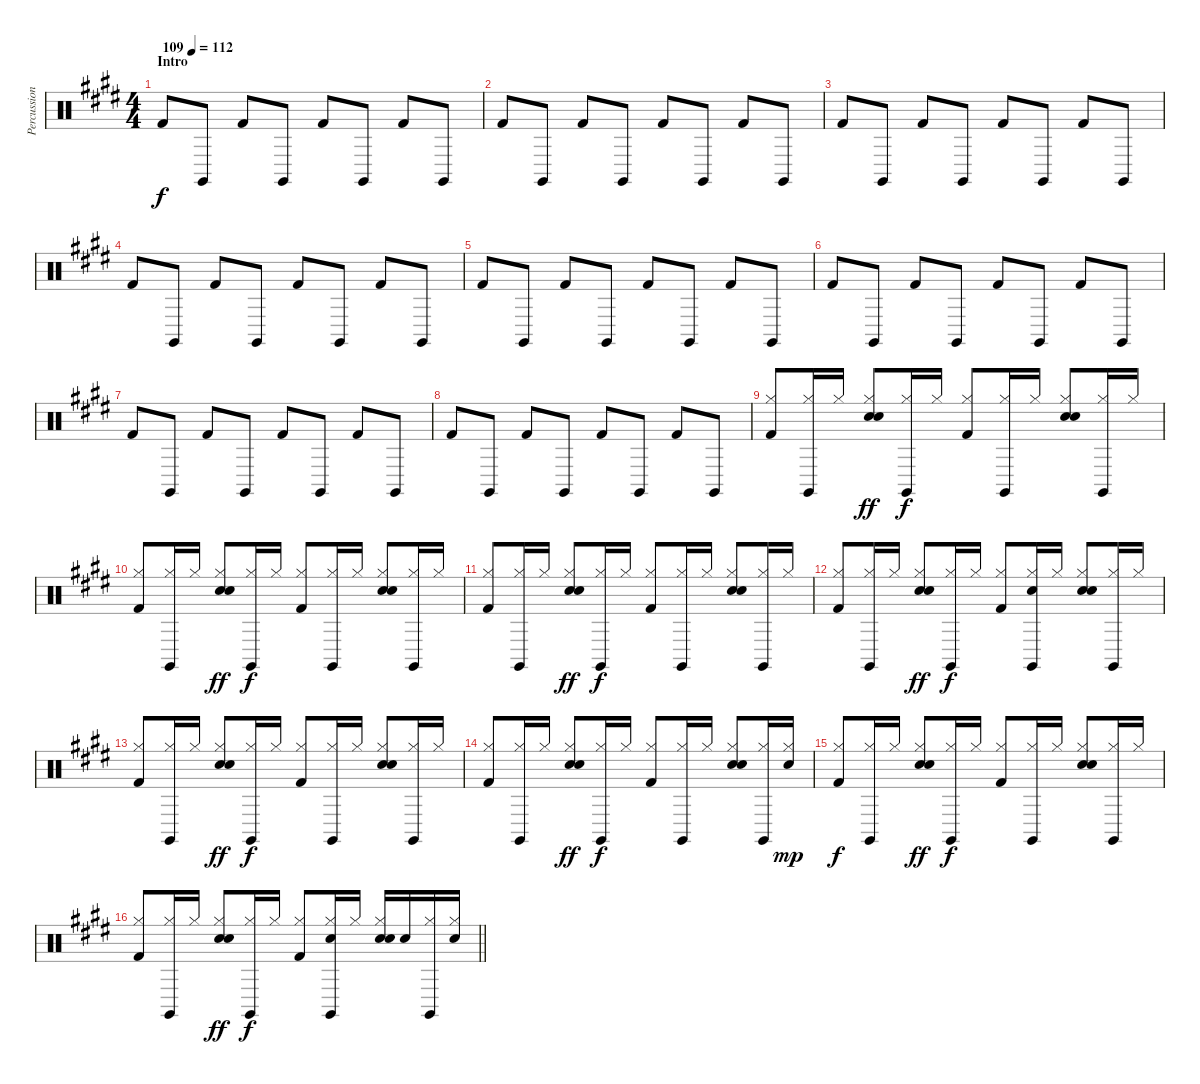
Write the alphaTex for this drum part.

\track ("Percussion" "Percussion") {instrument percussion}
\staff {score}
\articulation defaults
\ts (4 4)
\section ("" "Intro")
\tempo (112 "109")
\clef neutral
\ks e "Kick (hit) 2".8{dy f} "Claves (hit)".8 "Kick (hit) 2".8 "Claves (hit)".8 "Kick (hit) 2".8 "Claves (hit)".8 "Kick (hit) 2".8 "Claves (hit)".8
|
"Kick (hit) 2".8 "Claves (hit)".8 "Kick (hit) 2".8 "Claves (hit)".8 "Kick (hit) 2".8 "Claves (hit)".8 "Kick (hit) 2".8 "Claves (hit)".8 |
"Kick (hit) 2".8 "Claves (hit)".8 "Kick (hit) 2".8 "Claves (hit)".8 "Kick (hit) 2".8 "Claves (hit)".8 "Kick (hit) 2".8 "Claves (hit)".8 |
"Kick (hit) 2".8 "Claves (hit)".8 "Kick (hit) 2".8 "Claves (hit)".8 "Kick (hit) 2".8 "Claves (hit)".8 "Kick (hit) 2".8 "Claves (hit)".8 |
"Kick (hit) 2".8 "Claves (hit)".8 "Kick (hit) 2".8 "Claves (hit)".8 "Kick (hit) 2".8 "Claves (hit)".8 "Kick (hit) 2".8 "Claves (hit)".8 |
"Kick (hit) 2".8 "Claves (hit)".8 "Kick (hit) 2".8 "Claves (hit)".8 "Kick (hit) 2".8 "Claves (hit)".8 "Kick (hit) 2".8 "Claves (hit)".8 |
"Kick (hit) 2".8 "Claves (hit)".8 "Kick (hit) 2".8 "Claves (hit)".8 "Kick (hit) 2".8 "Claves (hit)".8 "Kick (hit) 2".8 "Claves (hit)".8 |
"Kick (hit) 2".8 "Claves (hit)".8 "Kick (hit) 2".8 "Claves (hit)".8 "Kick (hit) 2".8 "Claves (hit)".8 "Kick (hit) 2".8 "Claves (hit)".8 |
("Hi-Hat (closed)" "Kick (hit) 2").8 ("Claves (hit)" "Hi-Hat (closed)").16 "Hi-Hat (closed)".16 ("Hand Clap (hit)" "Hi-Hat (closed)" "Snare (hit) 2").8{dy ff} ("Claves (hit)" "Hi-Hat (closed)").16{dy f} "Hi-Hat (closed)".16 ("Hi-Hat (closed)" "Kick (hit) 2").8 ("Claves (hit)" "Hi-Hat (closed)").16 "Hi-Hat (closed)".16 ("Hand Clap (hit)" "Hi-Hat (closed)" "Snare (hit) 2").8 ("Claves (hit)" "Hi-Hat (closed)").16 "Hi-Hat (closed)".16 |
("Hi-Hat (closed)" "Kick (hit) 2").8 ("Claves (hit)" "Hi-Hat (closed)").16 "Hi-Hat (closed)".16 ("Hand Clap (hit)" "Hi-Hat (closed)" "Snare (hit) 2").8{dy ff} ("Claves (hit)" "Hi-Hat (closed)").16{dy f} "Hi-Hat (closed)".16 ("Hi-Hat (closed)" "Kick (hit) 2").8 ("Claves (hit)" "Hi-Hat (closed)").16 "Hi-Hat (closed)".16 ("Hand Clap (hit)" "Hi-Hat (closed)" "Snare (hit) 2").8 ("Claves (hit)" "Hi-Hat (closed)").16 "Hi-Hat (closed)".16 |
("Hi-Hat (closed)" "Kick (hit) 2").8 ("Claves (hit)" "Hi-Hat (closed)").16 "Hi-Hat (closed)".16 ("Hand Clap (hit)" "Hi-Hat (closed)" "Snare (hit) 2").8{dy ff} ("Claves (hit)" "Hi-Hat (closed)").16{dy f} "Hi-Hat (closed)".16 ("Hi-Hat (closed)" "Kick (hit) 2").8 ("Claves (hit)" "Hi-Hat (closed)").16 "Hi-Hat (closed)".16 ("Hand Clap (hit)" "Hi-Hat (closed)" "Snare (hit) 2").8 ("Claves (hit)" "Hi-Hat (closed)").16 "Hi-Hat (closed)".16 |
("Hi-Hat (closed)" "Kick (hit) 2").8 ("Claves (hit)" "Hi-Hat (closed)").16 "Hi-Hat (closed)".16 ("Hand Clap (hit)" "Hi-Hat (closed)" "Snare (hit) 2").8{dy ff} ("Claves (hit)" "Hi-Hat (closed)").16{dy f} "Hi-Hat (closed)".16 ("Hi-Hat (closed)" "Kick (hit) 2").8 ("Claves (hit)" "Hand Clap (hit)" "Hi-Hat (closed)").16 "Hi-Hat (closed)".16 ("Hand Clap (hit)" "Hi-Hat (closed)" "Snare (hit) 2").8 ("Claves (hit)" "Hi-Hat (closed)").16 "Hi-Hat (closed)".16 |
("Hi-Hat (closed)" "Kick (hit) 2").8 ("Claves (hit)" "Hi-Hat (closed)").16 "Hi-Hat (closed)".16 ("Hand Clap (hit)" "Hi-Hat (closed)" "Snare (hit) 2").8{dy ff} ("Claves (hit)" "Hi-Hat (closed)").16{dy f} "Hi-Hat (closed)".16 ("Hi-Hat (closed)" "Kick (hit) 2").8 ("Claves (hit)" "Hi-Hat (closed)").16 "Hi-Hat (closed)".16 ("Hand Clap (hit)" "Hi-Hat (closed)" "Snare (hit) 2").8 ("Claves (hit)" "Hi-Hat (closed)").16 "Hi-Hat (closed)".16 |
("Hi-Hat (closed)" "Kick (hit) 2").8 ("Claves (hit)" "Hi-Hat (closed)").16 "Hi-Hat (closed)".16 ("Hand Clap (hit)" "Hi-Hat (closed)" "Snare (hit) 2").8{dy ff} ("Claves (hit)" "Hi-Hat (closed)").16{dy f} "Hi-Hat (closed)".16 ("Hi-Hat (closed)" "Kick (hit) 2").8 ("Claves (hit)" "Hi-Hat (closed)").16 "Hi-Hat (closed)".16 ("Hand Clap (hit)" "Hi-Hat (closed)" "Snare (hit) 2").8 ("Claves (hit)" "Hi-Hat (closed)").16 ("Electric Snare (hit)" "Hi-Hat (closed)").16{dy mp} |
("Hi-Hat (closed)" "Kick (hit) 2").8{dy f} ("Claves (hit)" "Hi-Hat (closed)").16 "Hi-Hat (closed)".16 ("Hand Clap (hit)" "Hi-Hat (closed)" "Snare (hit) 2").8{dy ff} ("Claves (hit)" "Hi-Hat (closed)").16{dy f} "Hi-Hat (closed)".16 ("Hi-Hat (closed)" "Kick (hit) 2").8 ("Claves (hit)" "Hi-Hat (closed)").16 "Hi-Hat (closed)".16 ("Hand Clap (hit)" "Hi-Hat (closed)" "Snare (hit) 2").8 ("Claves (hit)" "Hi-Hat (closed)").16 "Hi-Hat (closed)".16 |
\barLineRight lightlight
("Hi-Hat (closed)" "Kick (hit) 2").8 ("Claves (hit)" "Hi-Hat (closed)").16 "Hi-Hat (closed)".16 ("Hand Clap (hit)" "Hi-Hat (closed)" "Snare (hit) 2").8{dy ff} ("Claves (hit)" "Hi-Hat (closed)").16{dy f} "Hi-Hat (closed)".16 ("Hi-Hat (closed)" "Kick (hit) 2").8 ("Claves (hit)" "Hi-Hat (closed)" "Snare (hit) 2").16 "Hi-Hat (closed)".16 ("Hand Clap (hit)" "Hi-Hat (closed)" "Snare (hit) 2").16 "Snare (hit) 2".16 ("Claves (hit)" "Hi-Hat (closed)").16 ("Hi-Hat (closed)" "Snare (hit) 2").16
